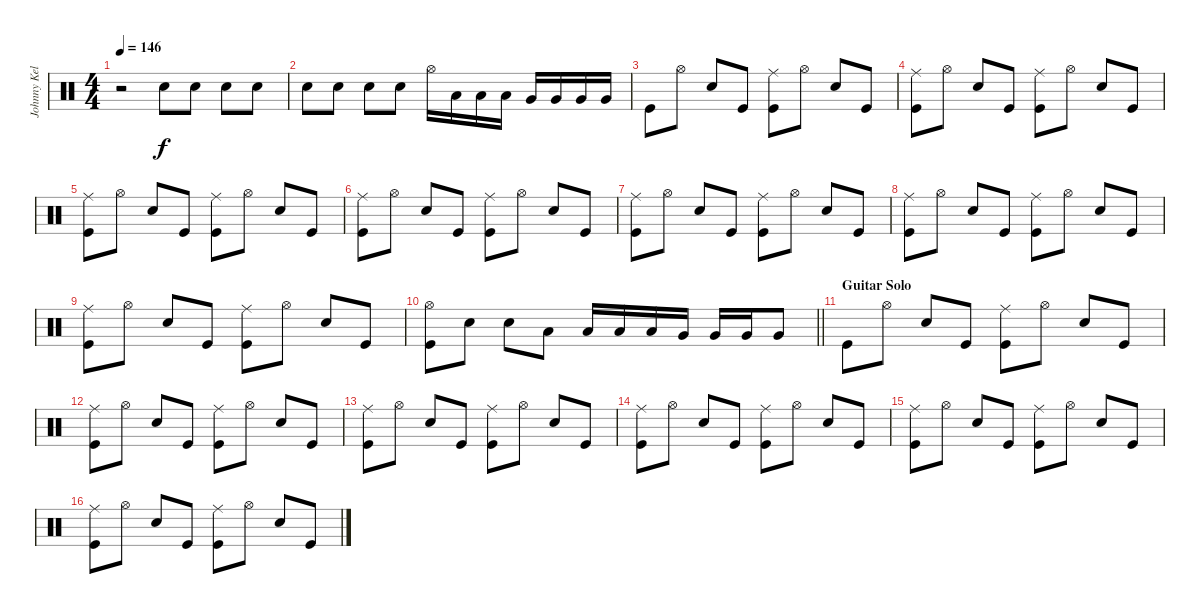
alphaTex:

\track ("Johnny Kelly" "Johnny Kel") {instrument percussion}
\staff {score}
\articulation defaults
\ts (4 4)
\tempo 146
\clef neutral
\ks c
r.2{dy f} "Snare (hit) 2".8 "Snare (hit) 2".8 "Snare (hit) 2".8 "Snare (hit) 2".8 |
"Snare (hit) 2".8 "Snare (hit) 2".8 "Snare (hit) 2".8 "Snare (hit) 2".8 "Hi-Hat (open)".16 "Low Tom (hit)".16 "Low Tom (hit)".16 "Low Tom (hit)".16 "Very Low Tom (hit)".16 "Very Low Tom (hit)".16 "Very Low Tom (hit)".16 "Very Low Tom (hit)".16 |
"Kick (hit)".8 "Hi-Hat (open)".8 "Snare (hit) 2".8 "Kick (hit)".8 ("Kick (hit)" "Ride (middle)").8 "Hi-Hat (open)".8 "Snare (hit) 2".8 "Kick (hit)".8 |
("Kick (hit)" "Ride (middle)").8 "Hi-Hat (open)".8 "Snare (hit) 2".8 "Kick (hit)".8 ("Kick (hit)" "Ride (middle)").8 "Hi-Hat (open)".8 "Snare (hit) 2".8 "Kick (hit)".8 |
("Kick (hit)" "Ride (middle)").8 "Hi-Hat (open)".8 "Snare (hit) 2".8 "Kick (hit)".8 ("Kick (hit)" "Ride (middle)").8 "Hi-Hat (open)".8 "Snare (hit) 2".8 "Kick (hit)".8 |
("Kick (hit)" "Ride (middle)").8 "Hi-Hat (open)".8 "Snare (hit) 2".8 "Kick (hit)".8 ("Kick (hit)" "Ride (middle)").8 "Hi-Hat (open)".8 "Snare (hit) 2".8 "Kick (hit)".8 |
("Kick (hit)" "Ride (middle)").8 "Hi-Hat (open)".8 "Snare (hit) 2".8 "Kick (hit)".8 ("Kick (hit)" "Ride (middle)").8 "Hi-Hat (open)".8 "Snare (hit) 2".8 "Kick (hit)".8 |
("Kick (hit)" "Ride (middle)").8 "Hi-Hat (open)".8 "Snare (hit) 2".8 "Kick (hit)".8 ("Kick (hit)" "Ride (middle)").8 "Hi-Hat (open)".8 "Snare (hit) 2".8 "Kick (hit)".8 |
("Kick (hit)" "Ride (middle)").8 "Hi-Hat (open)".8 "Snare (hit) 2".8 "Kick (hit)".8 ("Kick (hit)" "Ride (middle)").8 "Hi-Hat (open)".8 "Snare (hit) 2".8 "Kick (hit)".8 |
\barLineRight lightlight
("Kick (hit)" "Hi-Hat (open)").8 "Snare (hit) 2".8 "Snare (hit) 2".8 "Low Tom (hit)".8 "Low Tom (hit)".16 "Low Tom (hit)".16 "Low Tom (hit)".16 "Very Low Tom (hit)".16 "Very Low Tom (hit)".16 "Very Low Tom (hit)".16 "Very Low Tom (hit)".8 |
\section ("" "Guitar Solo")
"Kick (hit)".8 "Hi-Hat (open)".8 "Snare (hit) 2".8 "Kick (hit)".8 ("Kick (hit)" "Ride (middle)").8 "Hi-Hat (open)".8 "Snare (hit) 2".8 "Kick (hit)".8 |
("Kick (hit)" "Ride (middle)").8 "Hi-Hat (open)".8 "Snare (hit) 2".8 "Kick (hit)".8 ("Kick (hit)" "Ride (middle)").8 "Hi-Hat (open)".8 "Snare (hit) 2".8 "Kick (hit)".8 |
("Kick (hit)" "Ride (middle)").8 "Hi-Hat (open)".8 "Snare (hit) 2".8 "Kick (hit)".8 ("Kick (hit)" "Ride (middle)").8 "Hi-Hat (open)".8 "Snare (hit) 2".8 "Kick (hit)".8 |
("Kick (hit)" "Ride (middle)").8 "Hi-Hat (open)".8 "Snare (hit) 2".8 "Kick (hit)".8 ("Kick (hit)" "Ride (middle)").8 "Hi-Hat (open)".8 "Snare (hit) 2".8 "Kick (hit)".8 |
("Kick (hit)" "Ride (middle)").8 "Hi-Hat (open)".8 "Snare (hit) 2".8 "Kick (hit)".8 ("Kick (hit)" "Ride (middle)").8 "Hi-Hat (open)".8 "Snare (hit) 2".8 "Kick (hit)".8 |
("Kick (hit)" "Ride (middle)").8 "Hi-Hat (open)".8 "Snare (hit) 2".8 "Kick (hit)".8 ("Kick (hit)" "Ride (middle)").8 "Hi-Hat (open)".8 "Snare (hit) 2".8 "Kick (hit)".8
